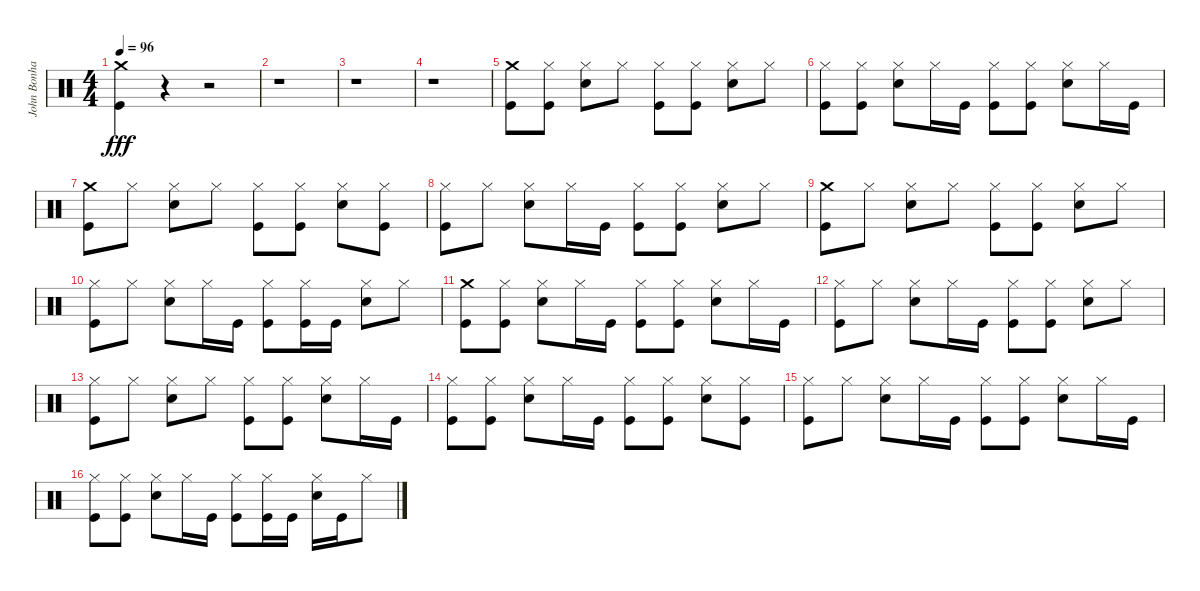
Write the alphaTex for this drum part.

\track ("John Bonham - Drums" "John Bonha") {instrument percussion}
\staff {score}
\articulation defaults
\ts (4 4)
\tempo 96
\clef neutral
\ks c
("Crash medium (hit)" "Kick (hit)").4{dy fff} r.4 r.2 |
r.1 |
r.1 |
r.1 |
("Crash medium (hit)" "Kick (hit)").8 ("Hi-Hat (closed)" "Kick (hit)").8 ("Hi-Hat (closed)" "Snare (hit) 2").8 "Hi-Hat (closed)".8 ("Hi-Hat (closed)" "Kick (hit)").8 ("Hi-Hat (closed)" "Kick (hit)").8 ("Hi-Hat (closed)" "Snare (hit) 2").8 "Hi-Hat (closed)".8 |
("Hi-Hat (closed)" "Kick (hit)").8 ("Hi-Hat (closed)" "Kick (hit)").8 ("Hi-Hat (closed)" "Snare (hit) 2").8 "Hi-Hat (closed)".16 "Kick (hit)".16 ("Hi-Hat (closed)" "Kick (hit)").8 ("Hi-Hat (closed)" "Kick (hit)").8 ("Hi-Hat (closed)" "Snare (hit) 2").8 "Hi-Hat (closed)".16 "Kick (hit)".16 |
("Crash medium (hit)" "Kick (hit)").8 "Hi-Hat (closed)".8 ("Hi-Hat (closed)" "Snare (hit) 2").8 "Hi-Hat (closed)".8 ("Hi-Hat (closed)" "Kick (hit)").8 ("Hi-Hat (closed)" "Kick (hit)").8 ("Hi-Hat (closed)" "Snare (hit) 2").8 ("Hi-Hat (closed)" "Kick (hit)").8 |
("Hi-Hat (closed)" "Kick (hit)").8 "Hi-Hat (closed)".8 ("Hi-Hat (closed)" "Snare (hit) 2").8 "Hi-Hat (closed)".16 "Kick (hit)".16 ("Hi-Hat (closed)" "Kick (hit)").8 ("Hi-Hat (closed)" "Kick (hit)").8 ("Hi-Hat (closed)" "Snare (hit) 2").8 "Hi-Hat (closed)".8 |
("Crash medium (hit)" "Kick (hit)").8 "Hi-Hat (closed)".8 ("Hi-Hat (closed)" "Snare (hit) 2").8 "Hi-Hat (closed)".8 ("Hi-Hat (closed)" "Kick (hit)").8 ("Hi-Hat (closed)" "Kick (hit)").8 ("Hi-Hat (closed)" "Snare (hit) 2").8 "Hi-Hat (closed)".8 |
("Hi-Hat (closed)" "Kick (hit)").8 "Hi-Hat (closed)".8 ("Hi-Hat (closed)" "Snare (hit) 2").8 "Hi-Hat (closed)".16 "Kick (hit)".16 ("Hi-Hat (closed)" "Kick (hit)").8 ("Hi-Hat (closed)" "Kick (hit)").16 "Kick (hit)".16 ("Hi-Hat (closed)" "Snare (hit) 2").8 "Hi-Hat (closed)".8 |
("Crash medium (hit)" "Kick (hit)").8 ("Hi-Hat (closed)" "Kick (hit)").8 ("Hi-Hat (closed)" "Snare (hit) 2").8 "Hi-Hat (closed)".16 "Kick (hit)".16 ("Hi-Hat (closed)" "Kick (hit)").8 ("Hi-Hat (closed)" "Kick (hit)").8 ("Hi-Hat (closed)" "Snare (hit) 2").8 "Hi-Hat (closed)".16 "Kick (hit)".16 |
("Hi-Hat (closed)" "Kick (hit)").8 "Hi-Hat (closed)".8 ("Hi-Hat (closed)" "Snare (hit) 2").8 "Hi-Hat (closed)".16 "Kick (hit)".16 ("Hi-Hat (closed)" "Kick (hit)").8 ("Hi-Hat (closed)" "Kick (hit)").8 ("Hi-Hat (closed)" "Snare (hit) 2").8 "Hi-Hat (closed)".8 |
("Hi-Hat (closed)" "Kick (hit)").8 "Hi-Hat (closed)".8 ("Hi-Hat (closed)" "Snare (hit) 2").8 "Hi-Hat (closed)".8 ("Hi-Hat (closed)" "Kick (hit)").8 ("Hi-Hat (closed)" "Kick (hit)").8 ("Hi-Hat (closed)" "Snare (hit) 2").8 "Hi-Hat (closed)".16 "Kick (hit)".16 |
("Hi-Hat (closed)" "Kick (hit)").8 ("Hi-Hat (closed)" "Kick (hit)").8 ("Hi-Hat (closed)" "Snare (hit) 2").8 "Hi-Hat (closed)".16 "Kick (hit)".16 ("Hi-Hat (closed)" "Kick (hit)").8 ("Hi-Hat (closed)" "Kick (hit)").8 ("Hi-Hat (closed)" "Snare (hit) 2").8 ("Hi-Hat (closed)" "Kick (hit)").8 |
("Hi-Hat (closed)" "Kick (hit)").8 "Hi-Hat (closed)".8 ("Hi-Hat (closed)" "Snare (hit) 2").8 "Hi-Hat (closed)".16 "Kick (hit)".16 ("Hi-Hat (closed)" "Kick (hit)").8 ("Hi-Hat (closed)" "Kick (hit)").8 ("Hi-Hat (closed)" "Snare (hit) 2").8 "Hi-Hat (closed)".16 "Kick (hit)".16 |
("Hi-Hat (closed)" "Kick (hit)").8 ("Hi-Hat (closed)" "Kick (hit)").8 ("Hi-Hat (closed)" "Snare (hit) 2").8 "Hi-Hat (closed)".16 "Kick (hit)".16 ("Hi-Hat (closed)" "Kick (hit)").8 ("Hi-Hat (closed)" "Kick (hit)").16 "Kick (hit)".16 ("Hi-Hat (closed)" "Snare (hit) 2").16 "Kick (hit)".16 "Hi-Hat (closed)".8
